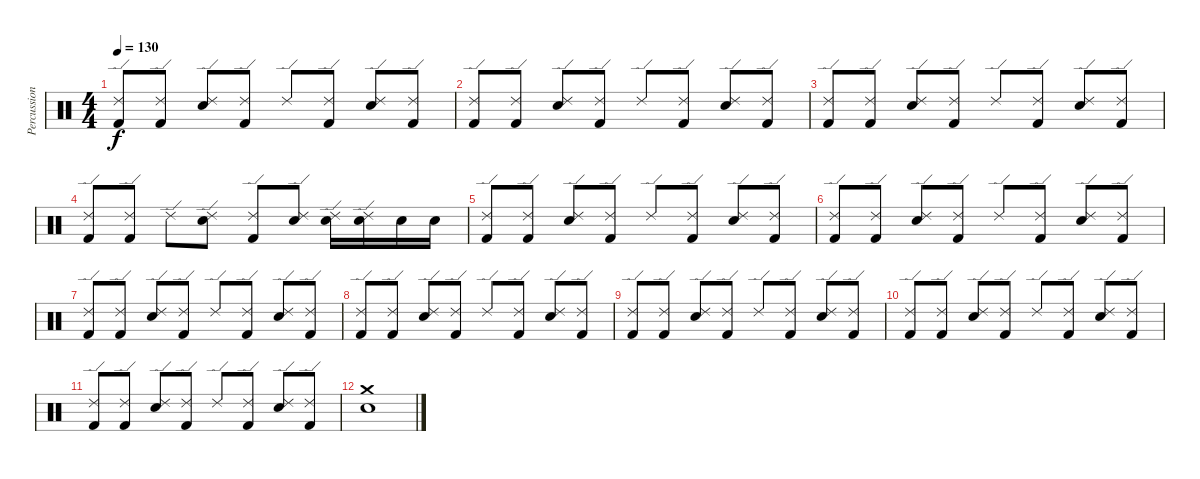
\track ("Percussion" "Percussion") {instrument percussion}
\staff {score}
\articulation defaults
\ts (4 4)
\tempo 130
\clef neutral
\ks c
("Kick (hit) 2" "Ride (edge) 2").8{dy f} ("Kick (hit) 2" "Ride (edge) 2").8 ("Electric Snare (hit)" "Ride (edge) 2").8 ("Kick (hit) 2" "Ride (edge) 2").8 "Ride (edge) 2".8 ("Kick (hit) 2" "Ride (edge) 2").8 ("Electric Snare (hit)" "Ride (edge) 2").8 ("Kick (hit) 2" "Ride (edge) 2").8 |
("Kick (hit) 2" "Ride (edge) 2").8 ("Kick (hit) 2" "Ride (edge) 2").8 ("Electric Snare (hit)" "Ride (edge) 2").8 ("Kick (hit) 2" "Ride (edge) 2").8 "Ride (edge) 2".8 ("Kick (hit) 2" "Ride (edge) 2").8 ("Electric Snare (hit)" "Ride (edge) 2").8 ("Kick (hit) 2" "Ride (edge) 2").8 |
("Kick (hit) 2" "Ride (edge) 2").8 ("Kick (hit) 2" "Ride (edge) 2").8 ("Electric Snare (hit)" "Ride (edge) 2").8 ("Kick (hit) 2" "Ride (edge) 2").8 "Ride (edge) 2".8 ("Kick (hit) 2" "Ride (edge) 2").8 ("Electric Snare (hit)" "Ride (edge) 2").8 ("Kick (hit) 2" "Ride (edge) 2").8 |
("Kick (hit) 2" "Ride (edge) 2").8 ("Kick (hit) 2" "Ride (edge) 2").8 "Ride (edge) 2".8 ("Electric Snare (hit)" "Ride (edge) 2").8 ("Kick (hit) 2" "Ride (edge) 2").8 ("Electric Snare (hit)" "Ride (edge) 2").8 ("Electric Snare (hit)" "Ride (edge) 2").16 ("Electric Snare (hit)" "Ride (edge) 2").16 "Electric Snare (hit)".16 "Electric Snare (hit)".16 |
("Kick (hit) 2" "Ride (edge) 2").8 ("Kick (hit) 2" "Ride (edge) 2").8 ("Electric Snare (hit)" "Ride (edge) 2").8 ("Kick (hit) 2" "Ride (edge) 2").8 "Ride (edge) 2".8 ("Kick (hit) 2" "Ride (edge) 2").8 ("Electric Snare (hit)" "Ride (edge) 2").8 ("Kick (hit) 2" "Ride (edge) 2").8 |
("Kick (hit) 2" "Ride (edge) 2").8 ("Kick (hit) 2" "Ride (edge) 2").8 ("Electric Snare (hit)" "Ride (edge) 2").8 ("Kick (hit) 2" "Ride (edge) 2").8 "Ride (edge) 2".8 ("Kick (hit) 2" "Ride (edge) 2").8 ("Electric Snare (hit)" "Ride (edge) 2").8 ("Kick (hit) 2" "Ride (edge) 2").8 |
("Kick (hit) 2" "Ride (edge) 2").8 ("Kick (hit) 2" "Ride (edge) 2").8 ("Electric Snare (hit)" "Ride (edge) 2").8 ("Kick (hit) 2" "Ride (edge) 2").8 "Ride (edge) 2".8 ("Kick (hit) 2" "Ride (edge) 2").8 ("Electric Snare (hit)" "Ride (edge) 2").8 ("Kick (hit) 2" "Ride (edge) 2").8 |
("Kick (hit) 2" "Ride (edge) 2").8 ("Kick (hit) 2" "Ride (edge) 2").8 ("Electric Snare (hit)" "Ride (edge) 2").8 ("Kick (hit) 2" "Ride (edge) 2").8 "Ride (edge) 2".8 ("Kick (hit) 2" "Ride (edge) 2").8 ("Electric Snare (hit)" "Ride (edge) 2").8 ("Kick (hit) 2" "Ride (edge) 2").8 |
("Kick (hit) 2" "Ride (edge) 2").8 ("Kick (hit) 2" "Ride (edge) 2").8 ("Electric Snare (hit)" "Ride (edge) 2").8 ("Kick (hit) 2" "Ride (edge) 2").8 "Ride (edge) 2".8 ("Kick (hit) 2" "Ride (edge) 2").8 ("Electric Snare (hit)" "Ride (edge) 2").8 ("Kick (hit) 2" "Ride (edge) 2").8 |
("Kick (hit) 2" "Ride (edge) 2").8 ("Kick (hit) 2" "Ride (edge) 2").8 ("Electric Snare (hit)" "Ride (edge) 2").8 ("Kick (hit) 2" "Ride (edge) 2").8 "Ride (edge) 2".8 ("Kick (hit) 2" "Ride (edge) 2").8 ("Electric Snare (hit)" "Ride (edge) 2").8 ("Kick (hit) 2" "Ride (edge) 2").8 |
("Kick (hit) 2" "Ride (edge) 2").8 ("Kick (hit) 2" "Ride (edge) 2").8 ("Electric Snare (hit)" "Ride (edge) 2").8 ("Kick (hit) 2" "Ride (edge) 2").8 "Ride (edge) 2".8 ("Kick (hit) 2" "Ride (edge) 2").8 ("Electric Snare (hit)" "Ride (edge) 2").8 ("Kick (hit) 2" "Ride (edge) 2").8 |
("Electric Snare (hit)" "Crash medium (hit)").1
